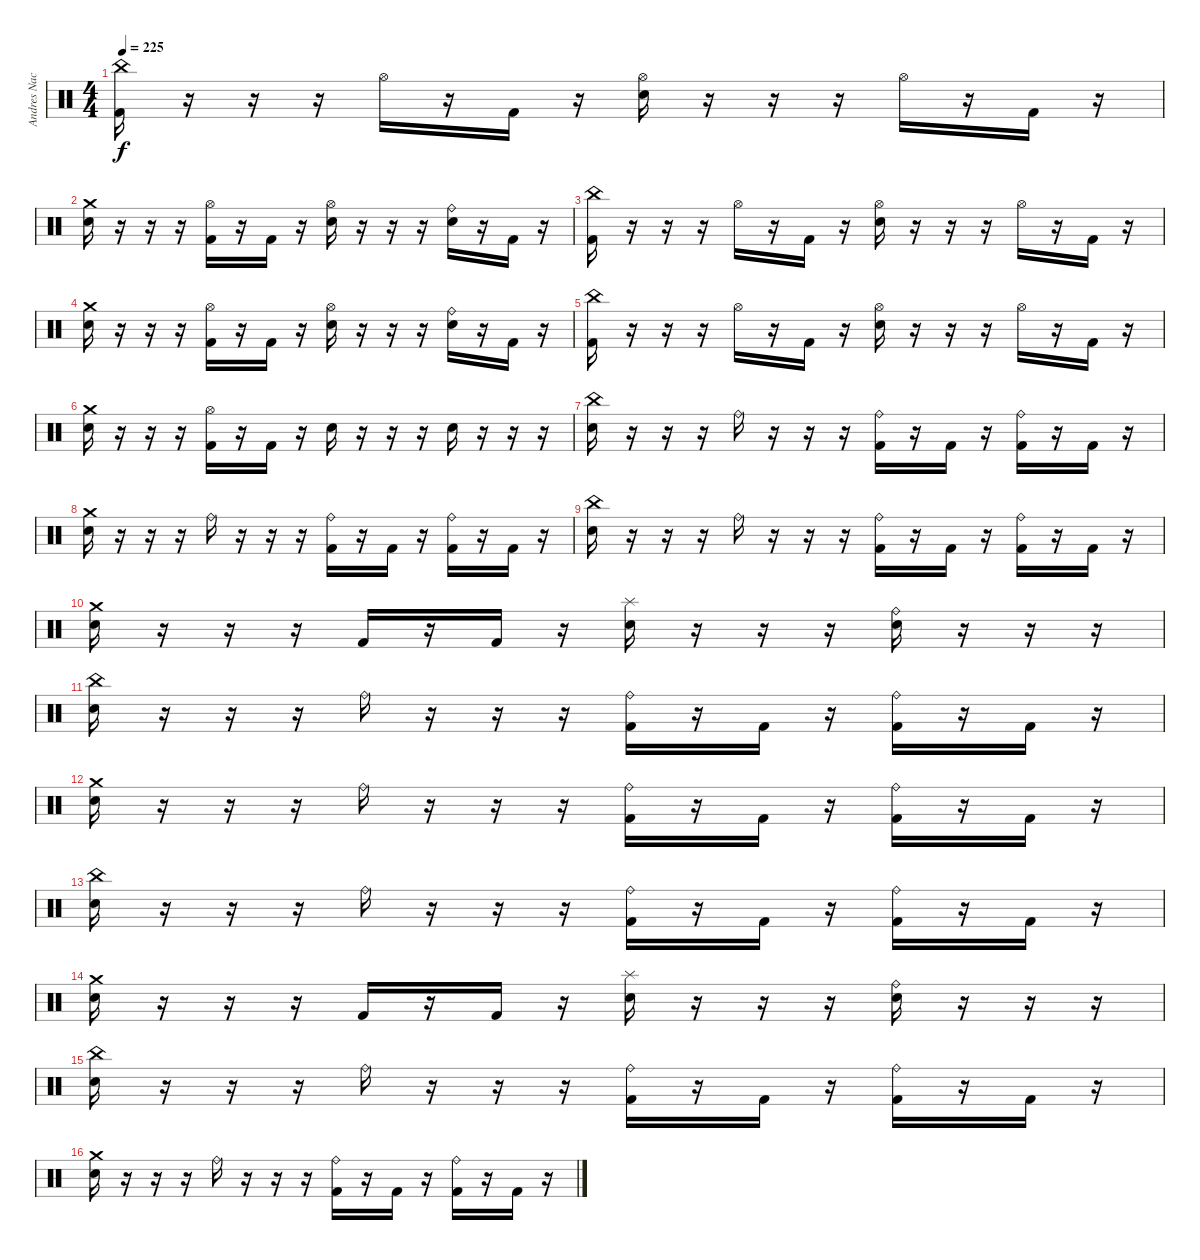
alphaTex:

\track ("Andres Nacrur" "Andres Nac") {instrument percussion}
\staff {score}
\articulation defaults
\ts (4 4)
\tempo 225
\clef neutral
\ks c
("China (hit)" "Kick (hit) 2").16{dy f} r.16 r.16 r.16 "Hi-Hat (open)".16 r.16 "Kick (hit) 2".16 r.16 ("Hi-Hat (open)" "Snare (hit) 2").16 r.16 r.16 r.16 "Hi-Hat (open)".16 r.16 "Kick (hit) 2".16 r.16 |
("Crash medium (hit)" "Snare (hit) 2").16 r.16 r.16 r.16 ("Hi-Hat (open)" "Kick (hit) 2").16 r.16 "Kick (hit) 2".16 r.16 ("Hi-Hat (open)" "Snare (hit) 2").16 r.16 r.16 r.16 ("Ride (bell)" "Snare (hit) 2").16 r.16 "Kick (hit) 2".16 r.16 |
("China (hit)" "Kick (hit) 2").16 r.16 r.16 r.16 "Hi-Hat (open)".16 r.16 "Kick (hit) 2".16 r.16 ("Hi-Hat (open)" "Snare (hit) 2").16 r.16 r.16 r.16 "Hi-Hat (open)".16 r.16 "Kick (hit) 2".16 r.16 |
("Crash medium (hit)" "Snare (hit) 2").16 r.16 r.16 r.16 ("Hi-Hat (open)" "Kick (hit) 2").16 r.16 "Kick (hit) 2".16 r.16 ("Hi-Hat (open)" "Snare (hit) 2").16 r.16 r.16 r.16 ("Ride (bell)" "Snare (hit) 2").16 r.16 "Kick (hit) 2".16 r.16 |
("China (hit)" "Kick (hit) 2").16 r.16 r.16 r.16 "Hi-Hat (open)".16 r.16 "Kick (hit) 2".16 r.16 ("Hi-Hat (open)" "Snare (hit) 2").16 r.16 r.16 r.16 "Hi-Hat (open)".16 r.16 "Kick (hit) 2".16 r.16 |
("Crash medium (hit)" "Snare (hit) 2").16 r.16 r.16 r.16 ("Hi-Hat (open)" "Kick (hit) 2").16 r.16 "Kick (hit) 2".16 r.16 "Snare (hit) 2".16 r.16 r.16 r.16 "Snare (hit) 2".16 r.16 r.16 r.16 |
("China (hit)" "Snare (hit) 2").16 r.16 r.16 r.16 "Ride (bell)".16 r.16 r.16 r.16 ("Ride (bell)" "Kick (hit) 2").16 r.16 "Kick (hit) 2".16 r.16 ("Ride (bell)" "Kick (hit) 2").16 r.16 "Kick (hit) 2".16 r.16 |
("Crash medium (hit)" "Snare (hit) 2").16 r.16 r.16 r.16 "Ride (bell)".16 r.16 r.16 r.16 ("Ride (bell)" "Kick (hit) 2").16 r.16 "Kick (hit) 2".16 r.16 ("Ride (bell)" "Kick (hit) 2").16 r.16 "Kick (hit) 2".16 r.16 |
("China (hit)" "Snare (hit) 2").16 r.16 r.16 r.16 "Ride (bell)".16 r.16 r.16 r.16 ("Ride (bell)" "Kick (hit) 2").16 r.16 "Kick (hit) 2".16 r.16 ("Ride (bell)" "Kick (hit) 2").16 r.16 "Kick (hit) 2".16 r.16 |
("Crash medium (hit)" "Snare (hit) 2").16 r.16 r.16 r.16 "Kick (hit) 2".16 r.16 "Kick (hit) 2".16 r.16 ("Splash (hit)" "Snare (hit) 2").16 r.16 r.16 r.16 ("Ride (bell)" "Snare (hit) 2").16 r.16 r.16 r.16 |
("China (hit)" "Snare (hit) 2").16 r.16 r.16 r.16 "Ride (bell)".16 r.16 r.16 r.16 ("Ride (bell)" "Kick (hit) 2").16 r.16 "Kick (hit) 2".16 r.16 ("Ride (bell)" "Kick (hit) 2").16 r.16 "Kick (hit) 2".16 r.16 |
("Crash medium (hit)" "Snare (hit) 2").16 r.16 r.16 r.16 "Ride (bell)".16 r.16 r.16 r.16 ("Ride (bell)" "Kick (hit) 2").16 r.16 "Kick (hit) 2".16 r.16 ("Ride (bell)" "Kick (hit) 2").16 r.16 "Kick (hit) 2".16 r.16 |
("China (hit)" "Snare (hit) 2").16 r.16 r.16 r.16 "Ride (bell)".16 r.16 r.16 r.16 ("Ride (bell)" "Kick (hit) 2").16 r.16 "Kick (hit) 2".16 r.16 ("Ride (bell)" "Kick (hit) 2").16 r.16 "Kick (hit) 2".16 r.16 |
("Crash medium (hit)" "Snare (hit) 2").16 r.16 r.16 r.16 "Kick (hit) 2".16 r.16 "Kick (hit) 2".16 r.16 ("Splash (hit)" "Snare (hit) 2").16 r.16 r.16 r.16 ("Ride (bell)" "Snare (hit) 2").16 r.16 r.16 r.16 |
("China (hit)" "Snare (hit) 2").16 r.16 r.16 r.16 "Ride (bell)".16 r.16 r.16 r.16 ("Ride (bell)" "Kick (hit) 2").16 r.16 "Kick (hit) 2".16 r.16 ("Ride (bell)" "Kick (hit) 2").16 r.16 "Kick (hit) 2".16 r.16 |
("Crash medium (hit)" "Snare (hit) 2").16 r.16 r.16 r.16 "Ride (bell)".16 r.16 r.16 r.16 ("Ride (bell)" "Kick (hit) 2").16 r.16 "Kick (hit) 2".16 r.16 ("Ride (bell)" "Kick (hit) 2").16 r.16 "Kick (hit) 2".16 r.16
